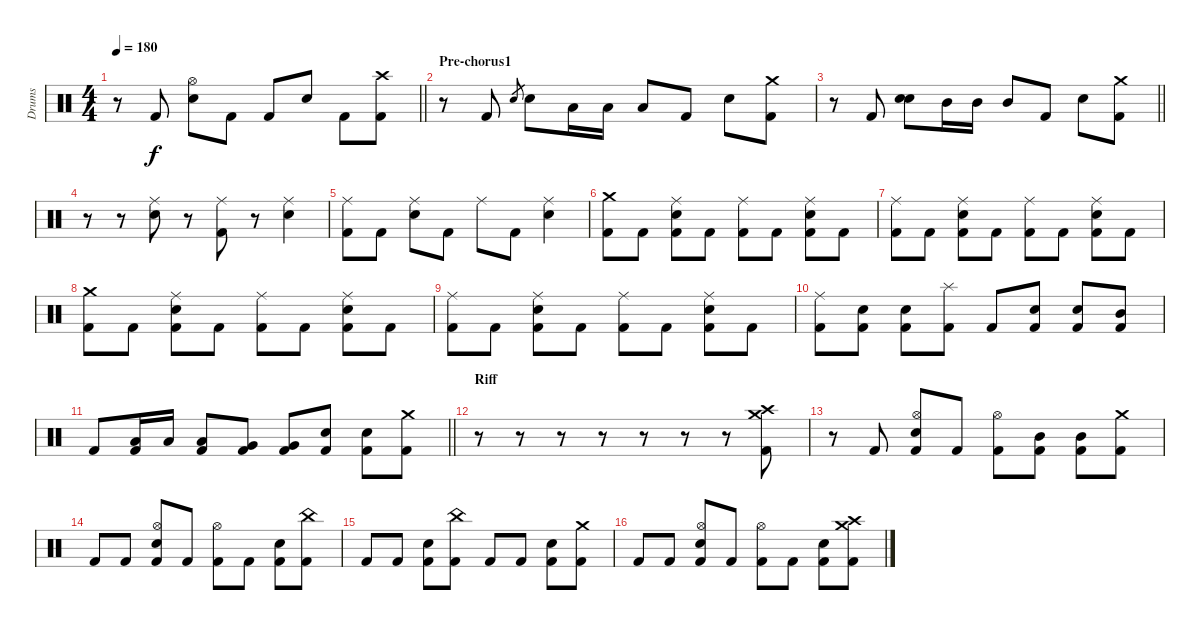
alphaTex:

\track ("Drums" "Drums") {instrument percussion}
\staff {score}
\articulation defaults
\ts (4 4)
\tempo 180
\clef neutral
\barLineRight lightlight
\ks c
r.8{dy f} "Kick (hit) 2".8 ("Hi-Hat (open)" "Electric Snare (hit)").8 "Kick (hit) 2".8 "Kick (hit) 2".8 "Electric Snare (hit)".8 "Kick (hit) 2".8 ("Crash high (hit)" "Kick (hit) 2").8 |
\section ("" "Pre-chorus1")
r.8 "Kick (hit) 2".8 "Electric Snare (hit)".8{gr} "Electric Snare (hit)".8 "Low Tom (hit)".16 "Low Tom (hit)".16 "Low Tom (hit)".8 "Kick (hit) 2".8 "Electric Snare (hit)".8 ("Crash medium (hit)" "Kick (hit) 2").8 |
\barLineRight lightlight
r.8 "Kick (hit) 2".8 ("Electric Snare (hit)" "Snare (hit) 2").8 "Mid Tom (hit)".16 "Mid Tom (hit)".16 "Mid Tom (hit)".8 "Kick (hit) 2".8 "Electric Snare (hit)".8 ("Crash medium (hit)" "Kick (hit) 2").8 |
r.8 r.8 ("Ride (middle)" "Electric Snare (hit)").8 r.8 ("Ride (middle)" "Kick (hit) 2").8 r.8 ("Ride (middle)" "Electric Snare (hit)").4 |
("Ride (middle)" "Kick (hit) 2").8 "Kick (hit) 2".8 ("Ride (middle)" "Electric Snare (hit)").8 "Kick (hit) 2".8 "Ride (middle)".8 "Kick (hit) 2".8 ("Ride (middle)" "Electric Snare (hit)").4 |
("Crash medium (hit)" "Kick (hit) 2").8 "Kick (hit) 2".8 ("Ride (middle)" "Electric Snare (hit)" "Kick (hit) 2").8 "Kick (hit) 2".8 ("Ride (middle)" "Kick (hit) 2").8 "Kick (hit) 2".8 ("Ride (middle)" "Electric Snare (hit)" "Kick (hit) 2").8 "Kick (hit) 2".8 |
("Ride (middle)" "Kick (hit) 2").8 "Kick (hit) 2".8 ("Ride (middle)" "Electric Snare (hit)" "Kick (hit) 2").8 "Kick (hit) 2".8 ("Ride (middle)" "Kick (hit) 2").8 "Kick (hit) 2".8 ("Ride (middle)" "Electric Snare (hit)" "Kick (hit) 2").8 "Kick (hit) 2".8 |
("Crash medium (hit)" "Kick (hit) 2").8 "Kick (hit) 2".8 ("Ride (middle)" "Electric Snare (hit)" "Kick (hit) 2").8 "Kick (hit) 2".8 ("Ride (middle)" "Kick (hit) 2").8 "Kick (hit) 2".8 ("Ride (middle)" "Electric Snare (hit)" "Kick (hit) 2").8 "Kick (hit) 2".8 |
("Ride (middle)" "Kick (hit) 2").8 "Kick (hit) 2".8 ("Ride (middle)" "Electric Snare (hit)" "Kick (hit) 2").8 "Kick (hit) 2".8 ("Ride (middle)" "Kick (hit) 2").8 "Kick (hit) 2".8 ("Ride (middle)" "Electric Snare (hit)" "Kick (hit) 2").8 "Kick (hit) 2".8 |
("Ride (middle)" "Kick (hit) 2").8 ("Electric Snare (hit)" "Kick (hit) 2").8 ("Electric Snare (hit)" "Kick (hit) 2").8 ("Splash (hit)" "Kick (hit) 2").8 "Kick (hit) 2".8 ("Electric Snare (hit)" "Kick (hit) 2").8 ("Electric Snare (hit)" "Kick (hit) 2").8 ("Mid Tom (hit)" "Kick (hit) 2").8 |
\barLineRight lightlight "Kick (hit) 2".8
("Low Tom (hit)" "Kick (hit) 2").16 "Low Tom (hit)".16 ("Low Tom (hit)" "Kick (hit) 2").8 ("Very Low Tom (hit)" "Kick (hit) 2").8 ("Very Low Tom (hit)" "Kick (hit) 2").8 ("Electric Snare (hit)" "Kick (hit) 2").8 ("Electric Snare (hit)" "Kick (hit) 2").8 ("Crash medium (hit)" "Kick (hit) 2").8 |
\section ("" "Riff")
r.8 r.8 r.8 r.8 r.8 r.8 r.8 ("Crash medium (hit)" "Crash high (hit)" "Kick (hit) 2").8 |
r.8 "Kick (hit) 2".8 ("Hi-Hat (open)" "Electric Snare (hit)" "Kick (hit) 2").8 "Kick (hit) 2".8 ("Hi-Hat (open)" "Kick (hit) 2").8 ("Mid Tom (hit)" "Kick (hit) 2").8 ("Mid Tom (hit)" "Kick (hit) 2").8 ("Crash medium (hit)" "Kick (hit) 2").8 |
"Kick (hit) 2".8 "Kick (hit) 2".8 ("Hi-Hat (open)" "Electric Snare (hit)" "Kick (hit) 2").8 "Kick (hit) 2".8 ("Hi-Hat (open)" "Kick (hit) 2").8 "Kick (hit) 2".8 ("Electric Snare (hit)" "Kick (hit) 2").8 ("China (hit)" "Kick (hit) 2").8 |
"Kick (hit) 2".8 "Kick (hit) 2".8 ("Electric Snare (hit)" "Kick (hit) 2").8 ("China (hit)" "Kick (hit) 2").8 "Kick (hit) 2".8 "Kick (hit) 2".8 ("Electric Snare (hit)" "Kick (hit) 2").8 ("Crash medium (hit)" "Kick (hit) 2").8 |
"Kick (hit) 2".8 "Kick (hit) 2".8 ("Hi-Hat (open)" "Electric Snare (hit)" "Kick (hit) 2").8 "Kick (hit) 2".8 ("Hi-Hat (open)" "Kick (hit) 2").8 "Kick (hit) 2".8 ("Electric Snare (hit)" "Kick (hit) 2").8 ("Crash medium (hit)" "Crash high (hit)" "Kick (hit) 2").8
